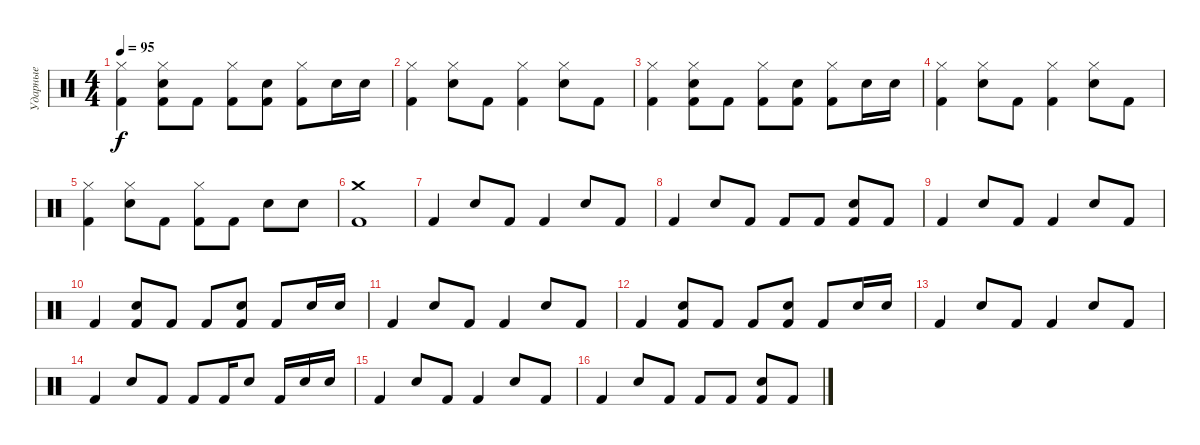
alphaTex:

\track ("Ударные" "Ударные") {instrument percussion}
\staff {score}
\articulation defaults
\ts (4 4)
\tempo 95
\clef neutral
\ks c
("Hi-Hat (closed)" "Kick (hit) 2").4{dy f} ("Hi-Hat (closed)" "Snare (hit) 2" "Kick (hit) 2").8 "Kick (hit) 2".8 ("Hi-Hat (closed)" "Kick (hit) 2").8 ("Snare (hit) 2" "Kick (hit) 2").8 ("Hi-Hat (closed)" "Kick (hit) 2").8 "Snare (hit) 2".16 "Snare (hit) 2".16 |
("Hi-Hat (closed)" "Kick (hit) 2").4 ("Hi-Hat (closed)" "Snare (hit) 2").8 "Kick (hit) 2".8 ("Hi-Hat (closed)" "Kick (hit) 2").4 ("Hi-Hat (closed)" "Snare (hit) 2").8 "Kick (hit) 2".8 |
("Hi-Hat (closed)" "Kick (hit) 2").4 ("Hi-Hat (closed)" "Snare (hit) 2" "Kick (hit) 2").8 "Kick (hit) 2".8 ("Hi-Hat (closed)" "Kick (hit) 2").8 ("Snare (hit) 2" "Kick (hit) 2").8 ("Hi-Hat (closed)" "Kick (hit) 2").8 "Snare (hit) 2".16 "Snare (hit) 2".16 |
("Hi-Hat (closed)" "Kick (hit) 2").4 ("Hi-Hat (closed)" "Snare (hit) 2").8 "Kick (hit) 2".8 ("Hi-Hat (closed)" "Kick (hit) 2").4 ("Hi-Hat (closed)" "Snare (hit) 2").8 "Kick (hit) 2".8 |
("Hi-Hat (closed)" "Kick (hit) 2").4 ("Hi-Hat (closed)" "Snare (hit) 2").8 "Kick (hit) 2".8 ("Hi-Hat (closed)" "Kick (hit) 2").8 "Kick (hit) 2".8 "Snare (hit) 2".8 "Snare (hit) 2".8 |
("Crash medium (hit)" "Kick (hit) 2").1 |
"Kick (hit) 2".4 "Snare (hit) 2".8 "Kick (hit) 2".8 "Kick (hit) 2".4 "Snare (hit) 2".8 "Kick (hit) 2".8 |
"Kick (hit) 2".4 "Snare (hit) 2".8 "Kick (hit) 2".8 "Kick (hit) 2".8 "Kick (hit) 2".8 ("Snare (hit) 2" "Kick (hit) 2").8 "Kick (hit) 2".8 |
"Kick (hit) 2".4 "Snare (hit) 2".8 "Kick (hit) 2".8 "Kick (hit) 2".4 "Snare (hit) 2".8 "Kick (hit) 2".8 |
"Kick (hit) 2".4 ("Snare (hit) 2" "Kick (hit) 2").8 "Kick (hit) 2".8 "Kick (hit) 2".8 ("Snare (hit) 2" "Kick (hit) 2").8 "Kick (hit) 2".8 "Snare (hit) 2".16 "Snare (hit) 2".16 |
"Kick (hit) 2".4 "Snare (hit) 2".8 "Kick (hit) 2".8 "Kick (hit) 2".4 "Snare (hit) 2".8 "Kick (hit) 2".8 |
"Kick (hit) 2".4 ("Snare (hit) 2" "Kick (hit) 2").8 "Kick (hit) 2".8 "Kick (hit) 2".8 ("Snare (hit) 2" "Kick (hit) 2").8 "Kick (hit) 2".8 "Snare (hit) 2".16 "Snare (hit) 2".16 |
"Kick (hit) 2".4 "Snare (hit) 2".8 "Kick (hit) 2".8 "Kick (hit) 2".4 "Snare (hit) 2".8 "Kick (hit) 2".8 |
"Kick (hit) 2".4 "Snare (hit) 2".8 "Kick (hit) 2".8 "Kick (hit) 2".8 "Kick (hit) 2".16 "Snare (hit) 2".8 "Kick (hit) 2".16 "Snare (hit) 2".16 "Snare (hit) 2".16 |
"Kick (hit) 2".4 "Snare (hit) 2".8 "Kick (hit) 2".8 "Kick (hit) 2".4 "Snare (hit) 2".8 "Kick (hit) 2".8 |
"Kick (hit) 2".4 "Snare (hit) 2".8 "Kick (hit) 2".8 "Kick (hit) 2".8 "Kick (hit) 2".8 ("Snare (hit) 2" "Kick (hit) 2").8 "Kick (hit) 2".8
